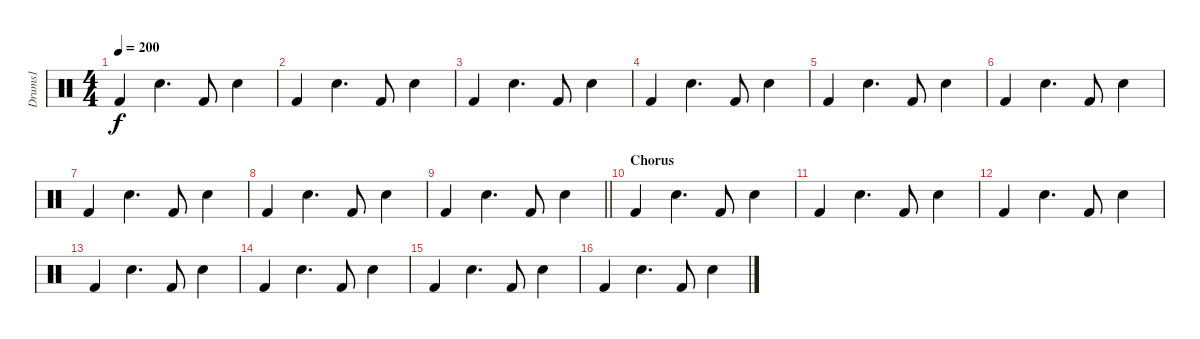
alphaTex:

\track ("Drums1" "Drums1") {instrument percussion}
\staff {score}
\articulation defaults
\ts (4 4)
\tempo 200
\clef neutral
\ks c "Kick (hit) 2".4{dy f} "Snare (hit) 2".4{d} "Kick (hit) 2".8 "Snare (hit) 2".4
|
"Kick (hit) 2".4 "Snare (hit) 2".4{d} "Kick (hit) 2".8 "Snare (hit) 2".4 |
"Kick (hit) 2".4 "Snare (hit) 2".4{d} "Kick (hit) 2".8 "Snare (hit) 2".4 |
"Kick (hit) 2".4 "Snare (hit) 2".4{d} "Kick (hit) 2".8 "Snare (hit) 2".4 |
"Kick (hit) 2".4 "Snare (hit) 2".4{d} "Kick (hit) 2".8 "Snare (hit) 2".4 |
"Kick (hit) 2".4 "Snare (hit) 2".4{d} "Kick (hit) 2".8 "Snare (hit) 2".4 |
"Kick (hit) 2".4 "Snare (hit) 2".4{d} "Kick (hit) 2".8 "Snare (hit) 2".4 |
"Kick (hit) 2".4 "Snare (hit) 2".4{d} "Kick (hit) 2".8 "Snare (hit) 2".4 |
\barLineRight lightlight "Kick (hit) 2".4 "Snare (hit) 2".4{d} "Kick (hit) 2".8 "Snare (hit) 2".4
|
\section ("" "Chorus")
"Kick (hit) 2".4 "Snare (hit) 2".4{d} "Kick (hit) 2".8 "Snare (hit) 2".4 |
"Kick (hit) 2".4 "Snare (hit) 2".4{d} "Kick (hit) 2".8 "Snare (hit) 2".4 |
"Kick (hit) 2".4 "Snare (hit) 2".4{d} "Kick (hit) 2".8 "Snare (hit) 2".4 |
"Kick (hit) 2".4 "Snare (hit) 2".4{d} "Kick (hit) 2".8 "Snare (hit) 2".4 |
"Kick (hit) 2".4 "Snare (hit) 2".4{d} "Kick (hit) 2".8 "Snare (hit) 2".4 |
"Kick (hit) 2".4 "Snare (hit) 2".4{d} "Kick (hit) 2".8 "Snare (hit) 2".4 |
"Kick (hit) 2".4 "Snare (hit) 2".4{d} "Kick (hit) 2".8 "Snare (hit) 2".4
